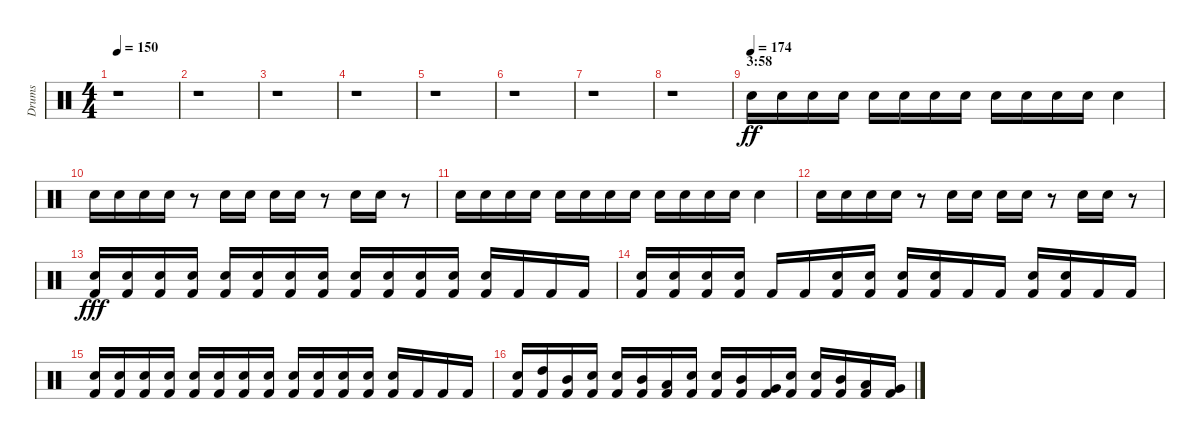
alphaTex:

\track ("Drums" "Drums") {instrument percussion}
\staff {score}
\articulation defaults
\ts (4 4)
\tempo 150
\clef neutral
\ks c
r.1{dy fff} |
r.1 |
r.1 |
r.1 |
r.1 |
r.1 |
r.1 |
r.1 |
\section ("" "3:58")
\tempo (174)
"Snare (hit) 2".16{dy ff} "Snare (hit) 2".16 "Snare (hit) 2".16 "Snare (hit) 2".16 "Snare (hit) 2".16 "Snare (hit) 2".16 "Snare (hit) 2".16 "Snare (hit) 2".16 "Snare (hit) 2".16 "Snare (hit) 2".16 "Snare (hit) 2".16 "Snare (hit) 2".16 "Snare (hit) 2".4 |
"Snare (hit) 2".16 "Snare (hit) 2".16 "Snare (hit) 2".16 "Snare (hit) 2".16 r.8 "Snare (hit) 2".16 "Snare (hit) 2".16 "Snare (hit) 2".16 "Snare (hit) 2".16 r.8 "Snare (hit) 2".16 "Snare (hit) 2".16 r.8 |
"Snare (hit) 2".16 "Snare (hit) 2".16 "Snare (hit) 2".16 "Snare (hit) 2".16 "Snare (hit) 2".16 "Snare (hit) 2".16 "Snare (hit) 2".16 "Snare (hit) 2".16 "Snare (hit) 2".16 "Snare (hit) 2".16 "Snare (hit) 2".16 "Snare (hit) 2".16 "Snare (hit) 2".4 |
"Snare (hit) 2".16 "Snare (hit) 2".16 "Snare (hit) 2".16 "Snare (hit) 2".16 r.8 "Snare (hit) 2".16 "Snare (hit) 2".16 "Snare (hit) 2".16 "Snare (hit) 2".16 r.8 "Snare (hit) 2".16 "Snare (hit) 2".16 r.8 |
("Snare (hit) 2" "Kick (hit) 2").16{dy fff} ("Snare (hit) 2" "Kick (hit) 2").16 ("Snare (hit) 2" "Kick (hit) 2").16 ("Snare (hit) 2" "Kick (hit) 2").16 ("Snare (hit) 2" "Kick (hit) 2").16 ("Snare (hit) 2" "Kick (hit) 2").16 ("Snare (hit) 2" "Kick (hit) 2").16 ("Snare (hit) 2" "Kick (hit) 2").16 ("Snare (hit) 2" "Kick (hit) 2").16 ("Snare (hit) 2" "Kick (hit) 2").16 ("Snare (hit) 2" "Kick (hit) 2").16 ("Snare (hit) 2" "Kick (hit) 2").16 ("Snare (hit) 2" "Kick (hit) 2").16 "Kick (hit) 2".16 "Kick (hit) 2".16 "Kick (hit) 2".16 |
("Snare (hit) 2" "Kick (hit) 2").16 ("Snare (hit) 2" "Kick (hit) 2").16 ("Snare (hit) 2" "Kick (hit) 2").16 ("Snare (hit) 2" "Kick (hit) 2").16 "Kick (hit) 2".16 "Kick (hit) 2".16 ("Snare (hit) 2" "Kick (hit) 2").16 ("Snare (hit) 2" "Kick (hit) 2").16 ("Snare (hit) 2" "Kick (hit) 2").16 ("Snare (hit) 2" "Kick (hit) 2").16 "Kick (hit) 2".16 "Kick (hit) 2".16 ("Snare (hit) 2" "Kick (hit) 2").16 ("Snare (hit) 2" "Kick (hit) 2").16 "Kick (hit) 2".16 "Kick (hit) 2".16 |
("Snare (hit) 2" "Kick (hit) 2").16 ("Snare (hit) 2" "Kick (hit) 2").16 ("Snare (hit) 2" "Kick (hit) 2").16 ("Snare (hit) 2" "Kick (hit) 2").16 ("Snare (hit) 2" "Kick (hit) 2").16 ("Snare (hit) 2" "Kick (hit) 2").16 ("Snare (hit) 2" "Kick (hit) 2").16 ("Snare (hit) 2" "Kick (hit) 2").16 ("Snare (hit) 2" "Kick (hit) 2").16 ("Snare (hit) 2" "Kick (hit) 2").16 ("Snare (hit) 2" "Kick (hit) 2").16 ("Snare (hit) 2" "Kick (hit) 2").16 ("Snare (hit) 2" "Kick (hit) 2").16 "Kick (hit) 2".16 "Kick (hit) 2".16 "Kick (hit) 2".16 |
("Snare (hit) 2" "Kick (hit) 2").16 ("High Tom (hit)" "Kick (hit) 2").16 ("Mid Tom (hit)" "Kick (hit) 2").16 ("Snare (hit) 2" "Kick (hit) 2").16 ("Snare (hit) 2" "Kick (hit) 2").16 ("Mid Tom (hit)" "Kick (hit) 2").16 ("Low Tom (hit)" "Kick (hit) 2").16 ("Snare (hit) 2" "Kick (hit) 2").16 ("Snare (hit) 2" "Kick (hit) 2").16 ("Mid Tom (hit)" "Kick (hit) 2").16 ("Very Low Tom (hit)" "Kick (hit) 2").16 ("Snare (hit) 2" "Kick (hit) 2").16 ("Snare (hit) 2" "Kick (hit) 2").16 ("Mid Tom (hit)" "Kick (hit) 2").16 ("Low Tom (hit)" "Kick (hit) 2").16 ("Very Low Tom (hit)" "Kick (hit) 2").16
